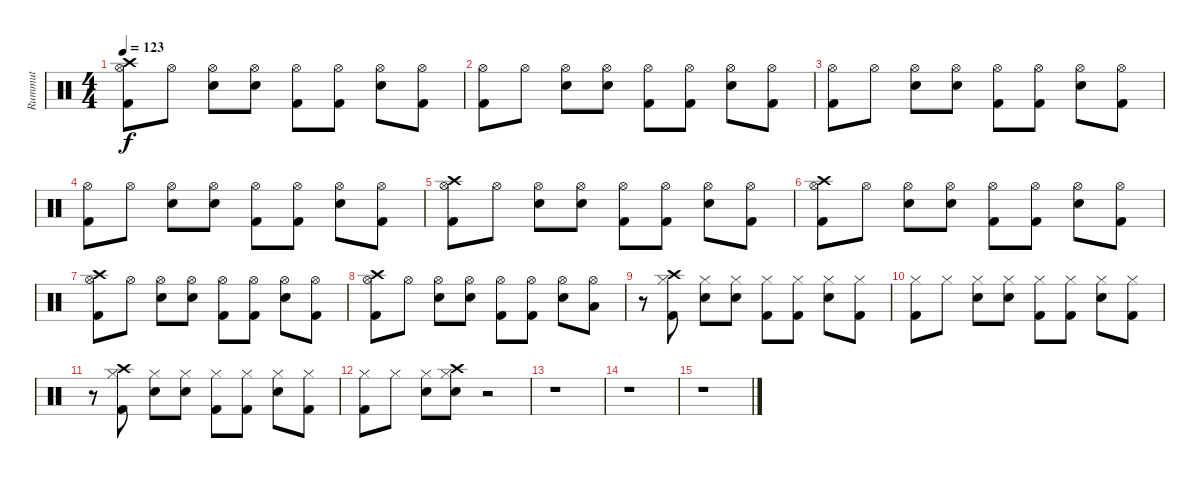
\track ("Rummut" "Rummut") {instrument percussion}
\staff {score}
\articulation defaults
\ts (4 4)
\tempo 123
\clef neutral
\ks c
("Crash high (hit)" "Hi-Hat (open)" "Kick (hit) 2").8{dy f} "Hi-Hat (open)".8 ("Hi-Hat (open)" "Electric Snare (hit)").8 ("Hi-Hat (open)" "Electric Snare (hit)").8 ("Hi-Hat (open)" "Kick (hit) 2").8 ("Hi-Hat (open)" "Kick (hit) 2").8 ("Hi-Hat (open)" "Electric Snare (hit)").8 ("Hi-Hat (open)" "Kick (hit) 2").8 |
("Hi-Hat (open)" "Kick (hit) 2").8 "Hi-Hat (open)".8 ("Hi-Hat (open)" "Electric Snare (hit)").8 ("Hi-Hat (open)" "Electric Snare (hit)").8 ("Hi-Hat (open)" "Kick (hit) 2").8 ("Hi-Hat (open)" "Kick (hit) 2").8 ("Hi-Hat (open)" "Electric Snare (hit)").8 ("Hi-Hat (open)" "Kick (hit) 2").8 |
("Hi-Hat (open)" "Kick (hit) 2").8 "Hi-Hat (open)".8 ("Hi-Hat (open)" "Electric Snare (hit)").8 ("Hi-Hat (open)" "Electric Snare (hit)").8 ("Hi-Hat (open)" "Kick (hit) 2").8 ("Hi-Hat (open)" "Kick (hit) 2").8 ("Hi-Hat (open)" "Electric Snare (hit)").8 ("Hi-Hat (open)" "Kick (hit) 2").8 |
("Hi-Hat (open)" "Kick (hit) 2").8 "Hi-Hat (open)".8 ("Hi-Hat (open)" "Electric Snare (hit)").8 ("Hi-Hat (open)" "Electric Snare (hit)").8 ("Hi-Hat (open)" "Kick (hit) 2").8 ("Hi-Hat (open)" "Kick (hit) 2").8 ("Hi-Hat (open)" "Electric Snare (hit)").8 ("Hi-Hat (open)" "Kick (hit) 2").8 |
("Crash high (hit)" "Hi-Hat (open)" "Kick (hit) 2").8 "Hi-Hat (open)".8 ("Hi-Hat (open)" "Electric Snare (hit)").8 ("Hi-Hat (open)" "Electric Snare (hit)").8 ("Hi-Hat (open)" "Kick (hit) 2").8 ("Hi-Hat (open)" "Kick (hit) 2").8 ("Hi-Hat (open)" "Electric Snare (hit)").8 ("Hi-Hat (open)" "Kick (hit) 2").8 |
("Crash high (hit)" "Hi-Hat (open)" "Kick (hit) 2").8 "Hi-Hat (open)".8 ("Hi-Hat (open)" "Electric Snare (hit)").8 ("Hi-Hat (open)" "Electric Snare (hit)").8 ("Hi-Hat (open)" "Kick (hit) 2").8 ("Hi-Hat (open)" "Kick (hit) 2").8 ("Hi-Hat (open)" "Electric Snare (hit)").8 ("Hi-Hat (open)" "Kick (hit) 2").8 |
("Crash high (hit)" "Hi-Hat (open)" "Kick (hit) 2").8 "Hi-Hat (open)".8 ("Hi-Hat (open)" "Electric Snare (hit)").8 ("Hi-Hat (open)" "Electric Snare (hit)").8 ("Hi-Hat (open)" "Kick (hit) 2").8 ("Hi-Hat (open)" "Kick (hit) 2").8 ("Hi-Hat (open)" "Electric Snare (hit)").8 ("Hi-Hat (open)" "Kick (hit) 2").8 |
("Crash high (hit)" "Hi-Hat (open)" "Kick (hit) 2").8 "Hi-Hat (open)".8 ("Hi-Hat (open)" "Electric Snare (hit)").8 ("Hi-Hat (open)" "Electric Snare (hit)").8 ("Hi-Hat (open)" "Kick (hit) 2").8 ("Hi-Hat (open)" "Kick (hit) 2").8 ("Hi-Hat (open)" "Electric Snare (hit)").8 ("Hi-Hat (open)" "Low Tom (hit)").8 |
r.8 ("Crash high (hit)" "Hi-Hat (closed)" "Kick (hit) 2").8 ("Hi-Hat (closed)" "Electric Snare (hit)").8 ("Hi-Hat (closed)" "Electric Snare (hit)").8 ("Hi-Hat (closed)" "Kick (hit) 2").8 ("Hi-Hat (closed)" "Kick (hit) 2").8 ("Hi-Hat (closed)" "Electric Snare (hit)").8 ("Hi-Hat (closed)" "Kick (hit) 2").8 |
("Hi-Hat (closed)" "Kick (hit) 2").8 "Hi-Hat (closed)".8 ("Hi-Hat (closed)" "Electric Snare (hit)").8 ("Hi-Hat (closed)" "Electric Snare (hit)").8 ("Hi-Hat (closed)" "Kick (hit) 2").8 ("Hi-Hat (closed)" "Kick (hit) 2").8 ("Hi-Hat (closed)" "Electric Snare (hit)").8 ("Hi-Hat (closed)" "Kick (hit) 2").8 |
r.8 ("Crash high (hit)" "Hi-Hat (closed)" "Kick (hit) 2").8 ("Hi-Hat (closed)" "Electric Snare (hit)").8 ("Hi-Hat (closed)" "Electric Snare (hit)").8 ("Hi-Hat (closed)" "Kick (hit) 2").8 ("Hi-Hat (closed)" "Kick (hit) 2").8 ("Hi-Hat (closed)" "Electric Snare (hit)").8 ("Hi-Hat (closed)" "Kick (hit) 2").8 |
("Hi-Hat (closed)" "Kick (hit) 2").8 "Hi-Hat (closed)".8 ("Hi-Hat (closed)" "Electric Snare (hit)").8 ("Crash high (hit)" "Hi-Hat (closed)" "Electric Snare (hit)").8 r.2 |
r.1 |
r.1 |
r.1
